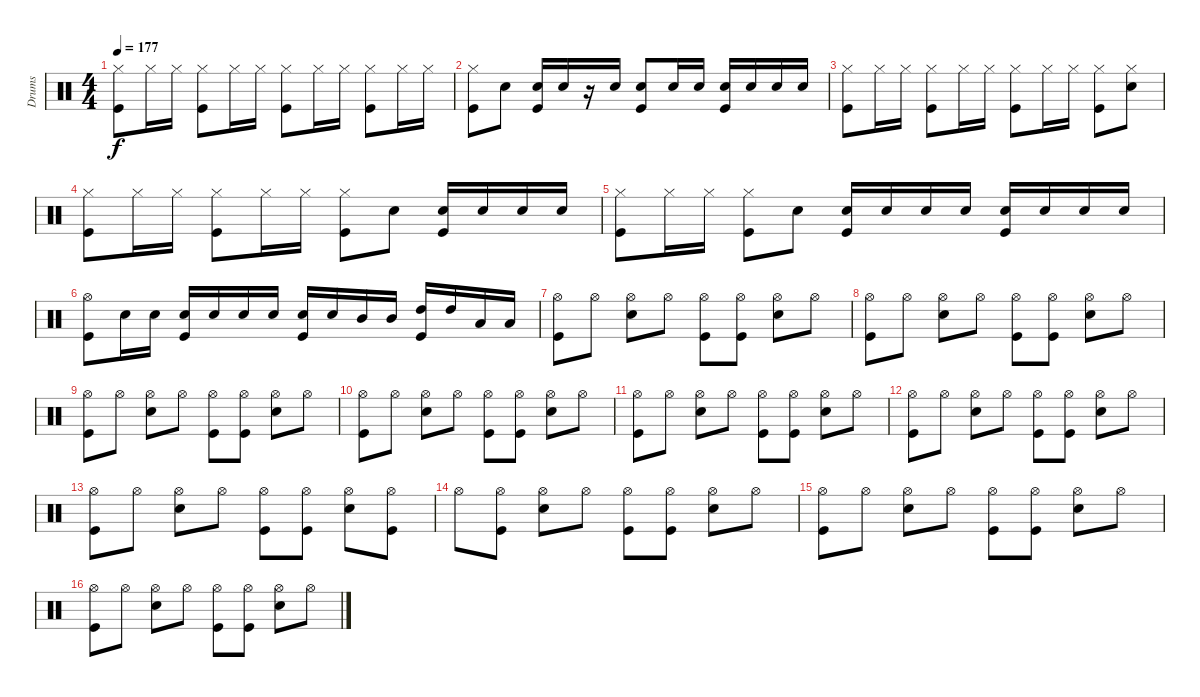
\track ("Drums" "Drums") {instrument percussion}
\staff {score}
\articulation defaults
\ts (4 4)
\tempo 177
\clef neutral
\ks c
("Hi-Hat (closed)" "Kick (hit)").8{dy f} "Hi-Hat (closed)".16 "Hi-Hat (closed)".16 ("Hi-Hat (closed)" "Kick (hit)").8 "Hi-Hat (closed)".16 "Hi-Hat (closed)".16 ("Hi-Hat (closed)" "Kick (hit)").8 "Hi-Hat (closed)".16 "Hi-Hat (closed)".16 ("Hi-Hat (closed)" "Kick (hit)").8 "Hi-Hat (closed)".16 "Hi-Hat (closed)".16 |
("Hi-Hat (closed)" "Kick (hit)").8 "Snare (hit) 2".8 ("Snare (hit) 2" "Kick (hit)").16 "Snare (hit) 2".16 r.16 "Snare (hit) 2".16 ("Snare (hit) 2" "Kick (hit)").8 "Snare (hit) 2".16 "Snare (hit) 2".16 ("Snare (hit) 2" "Kick (hit)").16 "Snare (hit) 2".16 "Snare (hit) 2".16 "Snare (hit) 2".16 |
("Hi-Hat (closed)" "Kick (hit)").8 "Hi-Hat (closed)".16 "Hi-Hat (closed)".16 ("Hi-Hat (closed)" "Kick (hit)").8 "Hi-Hat (closed)".16 "Hi-Hat (closed)".16 ("Hi-Hat (closed)" "Kick (hit)").8 "Hi-Hat (closed)".16 "Hi-Hat (closed)".16 ("Hi-Hat (closed)" "Kick (hit)").8 ("Hi-Hat (closed)" "Snare (hit) 2").8 |
("Hi-Hat (closed)" "Kick (hit)").8 "Hi-Hat (closed)".16 "Hi-Hat (closed)".16 ("Hi-Hat (closed)" "Kick (hit)").8 "Hi-Hat (closed)".16 "Hi-Hat (closed)".16 ("Hi-Hat (closed)" "Kick (hit)").8 "Snare (hit) 2".8 ("Snare (hit) 2" "Kick (hit)").16 "Snare (hit) 2".16 "Snare (hit) 2".16 "Snare (hit) 2".16 |
("Hi-Hat (closed)" "Kick (hit)").8 "Hi-Hat (closed)".16 "Hi-Hat (closed)".16 ("Hi-Hat (closed)" "Kick (hit)").8 "Snare (hit) 2".8 ("Snare (hit) 2" "Kick (hit)").16 "Snare (hit) 2".16 "Snare (hit) 2".16 "Snare (hit) 2".16 ("Snare (hit) 2" "Kick (hit)").16 "Snare (hit) 2".16 "Snare (hit) 2".16 "Snare (hit) 2".16 |
("Hi-Hat (open)" "Kick (hit)").8 "Snare (hit) 2".16 "Snare (hit) 2".16 ("Snare (hit) 2" "Kick (hit)").16 "Snare (hit) 2".16 "Snare (hit) 2".16 "Snare (hit) 2".16 ("Snare (hit) 2" "Kick (hit)").16 "Snare (hit) 2".16 "Mid Tom (hit)".16 "Mid Tom (hit)".16 ("High Tom (hit)" "Kick (hit)").16 "High Tom (hit)".16 "Low Tom (hit)".16 "Low Tom (hit)".16 |
("Hi-Hat (open)" "Kick (hit)").8 "Hi-Hat (open)".8 ("Hi-Hat (open)" "Snare (hit) 2").8 "Hi-Hat (open)".8 ("Hi-Hat (open)" "Kick (hit)").8 ("Hi-Hat (open)" "Kick (hit)").8 ("Hi-Hat (open)" "Snare (hit) 2").8 "Hi-Hat (open)".8 |
("Hi-Hat (open)" "Kick (hit)").8 "Hi-Hat (open)".8 ("Hi-Hat (open)" "Snare (hit) 2").8 "Hi-Hat (open)".8 ("Hi-Hat (open)" "Kick (hit)").8 ("Hi-Hat (open)" "Kick (hit)").8 ("Hi-Hat (open)" "Snare (hit) 2").8 "Hi-Hat (open)".8 |
("Hi-Hat (open)" "Kick (hit)").8 "Hi-Hat (open)".8 ("Hi-Hat (open)" "Snare (hit) 2").8 "Hi-Hat (open)".8 ("Hi-Hat (open)" "Kick (hit)").8 ("Hi-Hat (open)" "Kick (hit)").8 ("Hi-Hat (open)" "Snare (hit) 2").8 "Hi-Hat (open)".8 |
("Hi-Hat (open)" "Kick (hit)").8 "Hi-Hat (open)".8 ("Hi-Hat (open)" "Snare (hit) 2").8 "Hi-Hat (open)".8 ("Hi-Hat (open)" "Kick (hit)").8 ("Hi-Hat (open)" "Kick (hit)").8 ("Hi-Hat (open)" "Snare (hit) 2").8 "Hi-Hat (open)".8 |
("Hi-Hat (open)" "Kick (hit)").8 "Hi-Hat (open)".8 ("Hi-Hat (open)" "Snare (hit) 2").8 "Hi-Hat (open)".8 ("Hi-Hat (open)" "Kick (hit)").8 ("Hi-Hat (open)" "Kick (hit)").8 ("Hi-Hat (open)" "Snare (hit) 2").8 "Hi-Hat (open)".8 |
("Hi-Hat (open)" "Kick (hit)").8 "Hi-Hat (open)".8 ("Hi-Hat (open)" "Snare (hit) 2").8 "Hi-Hat (open)".8 ("Hi-Hat (open)" "Kick (hit)").8 ("Hi-Hat (open)" "Kick (hit)").8 ("Hi-Hat (open)" "Snare (hit) 2").8 "Hi-Hat (open)".8 |
("Hi-Hat (open)" "Kick (hit)").8 "Hi-Hat (open)".8 ("Hi-Hat (open)" "Snare (hit) 2").8 "Hi-Hat (open)".8 ("Hi-Hat (open)" "Kick (hit)").8 ("Hi-Hat (open)" "Kick (hit)").8 ("Hi-Hat (open)" "Snare (hit) 2").8 ("Hi-Hat (open)" "Kick (hit)").8 |
"Hi-Hat (open)".8 ("Hi-Hat (open)" "Kick (hit)").8 ("Hi-Hat (open)" "Snare (hit) 2").8 "Hi-Hat (open)".8 ("Hi-Hat (open)" "Kick (hit)").8 ("Hi-Hat (open)" "Kick (hit)").8 ("Hi-Hat (open)" "Snare (hit) 2").8 "Hi-Hat (open)".8 |
("Hi-Hat (open)" "Kick (hit)").8 "Hi-Hat (open)".8 ("Hi-Hat (open)" "Snare (hit) 2").8 "Hi-Hat (open)".8 ("Hi-Hat (open)" "Kick (hit)").8 ("Hi-Hat (open)" "Kick (hit)").8 ("Hi-Hat (open)" "Snare (hit) 2").8 "Hi-Hat (open)".8 |
("Hi-Hat (open)" "Kick (hit)").8 "Hi-Hat (open)".8 ("Hi-Hat (open)" "Snare (hit) 2").8 "Hi-Hat (open)".8 ("Hi-Hat (open)" "Kick (hit)").8 ("Hi-Hat (open)" "Kick (hit)").8 ("Hi-Hat (open)" "Snare (hit) 2").8 "Hi-Hat (open)".8
